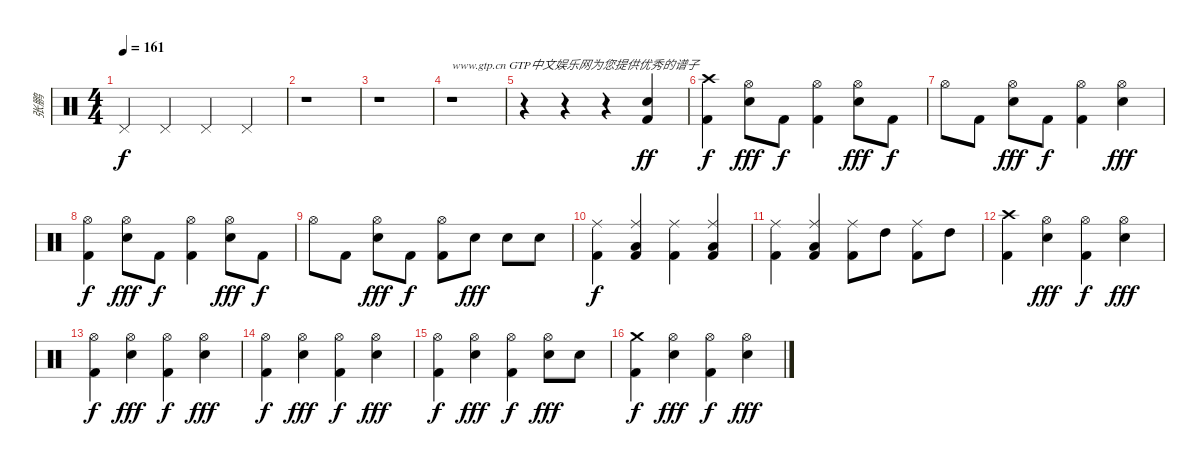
\track ("张鹏" "张鹏") {instrument percussion}
\staff {score}
\articulation defaults
\ts (4 4)
\tempo 161
\clef neutral
\ks c "Pedal Hi-Hat (hit)".4{dy f} "Pedal Hi-Hat (hit)".4 "Pedal Hi-Hat (hit)".4 "Pedal Hi-Hat (hit)".4
|
r.1 |
r.1 |
r.1{txt "www.gtp.cn GTP中文娱乐网为您提供优秀的谱子"} |
r.4 r.4 r.4 ("Electric Snare (hit)" "Kick (hit) 2").4{dy ff volume 16} |
("Crash high (hit)" "Kick (hit) 2").4{dy f} ("Hi-Hat (open)" "Electric Snare (hit)").8{dy fff} "Kick (hit) 2".8{dy f} ("Hi-Hat (open)" "Kick (hit) 2").4 ("Hi-Hat (open)" "Electric Snare (hit)").8{dy fff} "Kick (hit) 2".8{dy f} |
"Hi-Hat (open)".8 "Kick (hit) 2".8 ("Hi-Hat (open)" "Electric Snare (hit)").8{dy fff} "Kick (hit) 2".8{dy f} ("Hi-Hat (open)" "Kick (hit) 2").4 ("Hi-Hat (open)" "Electric Snare (hit)").4{dy fff} |
("Hi-Hat (open)" "Kick (hit) 2").4{dy f} ("Hi-Hat (open)" "Electric Snare (hit)").8{dy fff} "Kick (hit) 2".8{dy f} ("Hi-Hat (open)" "Kick (hit) 2").4 ("Hi-Hat (open)" "Electric Snare (hit)").8{dy fff} "Kick (hit) 2".8{dy f} |
"Hi-Hat (open)".8 "Kick (hit) 2".8 ("Hi-Hat (open)" "Electric Snare (hit)").8{dy fff} "Kick (hit) 2".8{dy f} ("Hi-Hat (open)" "Kick (hit) 2").8 "Electric Snare (hit)".8{dy fff} "Electric Snare (hit)".8 "Electric Snare (hit)".8 |
("Ride (middle)" "Kick (hit) 2").4{dy f} ("Ride (middle)" "Low Tom (hit)" "Kick (hit) 2").4 ("Ride (middle)" "Kick (hit) 2").4 ("Ride (middle)" "Low Tom (hit)" "Kick (hit) 2").4 |
("Ride (middle)" "Kick (hit) 2").4 ("Ride (middle)" "Low Tom (hit)" "Kick (hit) 2").4 ("Ride (middle)" "Kick (hit) 2").8 "High Tom (hit)".8 ("Ride (middle)" "Kick (hit) 2").8 "High Tom (hit)".8 |
("Crash high (hit)" "Kick (hit) 2").4 ("Hi-Hat (open)" "Electric Snare (hit)").4{dy fff} ("Hi-Hat (open)" "Kick (hit) 2").4{dy f} ("Hi-Hat (open)" "Electric Snare (hit)").4{dy fff} |
("Hi-Hat (open)" "Kick (hit) 2").4{dy f} ("Hi-Hat (open)" "Electric Snare (hit)").4{dy fff} ("Hi-Hat (open)" "Kick (hit) 2").4{dy f} ("Hi-Hat (open)" "Electric Snare (hit)").4{dy fff} |
("Hi-Hat (open)" "Kick (hit) 2").4{dy f} ("Hi-Hat (open)" "Electric Snare (hit)").4{dy fff} ("Hi-Hat (open)" "Kick (hit) 2").4{dy f} ("Hi-Hat (open)" "Electric Snare (hit)").4{dy fff} |
("Hi-Hat (open)" "Kick (hit) 2").4{dy f} ("Hi-Hat (open)" "Electric Snare (hit)").4{dy fff} ("Hi-Hat (open)" "Kick (hit) 2").4{dy f} ("Hi-Hat (open)" "Electric Snare (hit)").8{dy fff} "Electric Snare (hit)".8 |
("Crash medium (hit)" "Kick (hit) 2").4{dy f} ("Hi-Hat (open)" "Electric Snare (hit)").4{dy fff} ("Hi-Hat (open)" "Kick (hit) 2").4{dy f} ("Hi-Hat (open)" "Electric Snare (hit)").4{dy fff}
